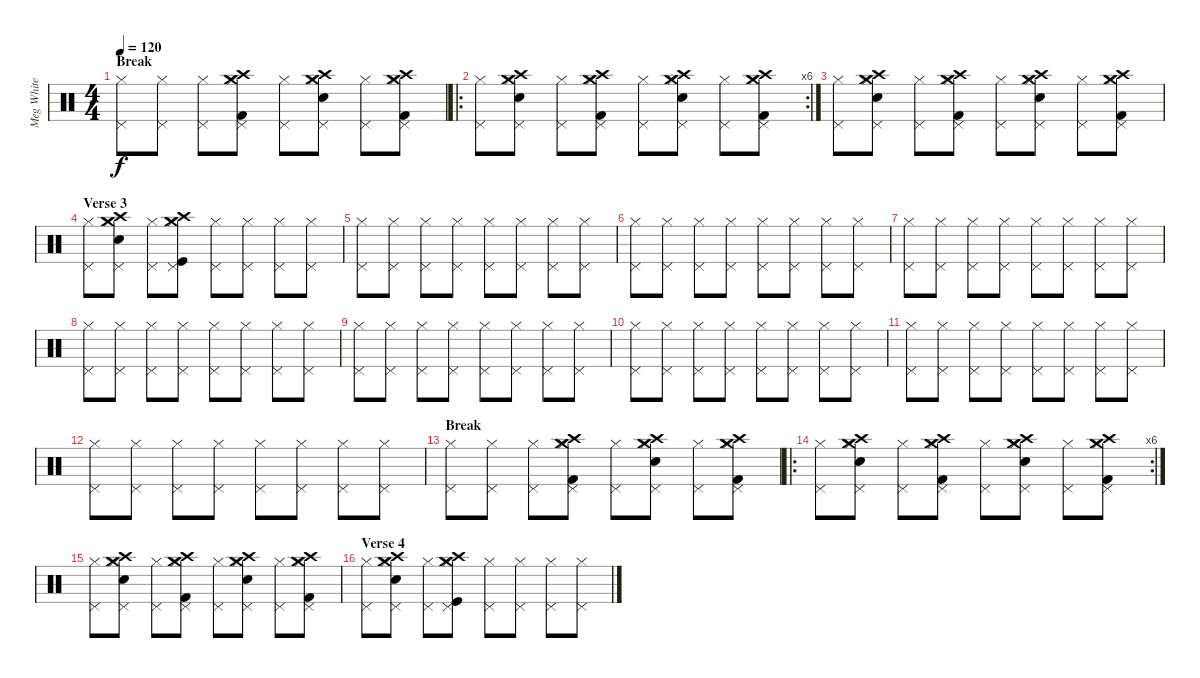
\track ("Meg White" "Meg White") {instrument percussion}
\staff {score}
\articulation defaults
\ts (4 4)
\section ("" "Break")
\tempo 120
\clef neutral
\ks c
("Hi-Hat (closed)" "Pedal Hi-Hat (hit)").8{dy f} ("Hi-Hat (closed)" "Pedal Hi-Hat (hit)").8 ("Hi-Hat (closed)" "Pedal Hi-Hat (hit)").8 ("Hi-Hat (closed)" "Pedal Hi-Hat (hit)" "Kick (hit) 2" "Crash high (hit)" "Crash medium (hit)").8 ("Hi-Hat (closed)" "Pedal Hi-Hat (hit)").8 ("Hi-Hat (closed)" "Pedal Hi-Hat (hit)" "Electric Snare (hit)" "Crash high (hit)" "Crash medium (hit)").8 ("Pedal Hi-Hat (hit)" "Hi-Hat (closed)").8 ("Pedal Hi-Hat (hit)" "Hi-Hat (closed)" "Kick (hit) 2" "Crash high (hit)" "Crash medium (hit)").8 |
\ro
\rc 6
("Hi-Hat (closed)" "Pedal Hi-Hat (hit)").8 ("Hi-Hat (closed)" "Pedal Hi-Hat (hit)" "Electric Snare (hit)" "Crash high (hit)" "Crash medium (hit)").8 ("Hi-Hat (closed)" "Pedal Hi-Hat (hit)").8 ("Hi-Hat (closed)" "Pedal Hi-Hat (hit)" "Kick (hit) 2" "Crash high (hit)" "Crash medium (hit)").8 ("Hi-Hat (closed)" "Pedal Hi-Hat (hit)").8 ("Hi-Hat (closed)" "Pedal Hi-Hat (hit)" "Electric Snare (hit)" "Crash high (hit)" "Crash medium (hit)").8 ("Pedal Hi-Hat (hit)" "Hi-Hat (closed)").8 ("Pedal Hi-Hat (hit)" "Hi-Hat (closed)" "Kick (hit) 2" "Crash high (hit)" "Crash medium (hit)").8 |
("Hi-Hat (closed)" "Pedal Hi-Hat (hit)").8 ("Hi-Hat (closed)" "Pedal Hi-Hat (hit)" "Electric Snare (hit)" "Crash high (hit)" "Crash medium (hit)").8 ("Hi-Hat (closed)" "Pedal Hi-Hat (hit)").8 ("Hi-Hat (closed)" "Pedal Hi-Hat (hit)" "Kick (hit) 2" "Crash high (hit)" "Crash medium (hit)").8 ("Hi-Hat (closed)" "Pedal Hi-Hat (hit)").8 ("Hi-Hat (closed)" "Pedal Hi-Hat (hit)" "Electric Snare (hit)" "Crash high (hit)" "Crash medium (hit)").8 ("Pedal Hi-Hat (hit)" "Hi-Hat (closed)").8 ("Pedal Hi-Hat (hit)" "Hi-Hat (closed)" "Kick (hit) 2" "Crash high (hit)" "Crash medium (hit)").8 |
\section ("" "Verse 3")
("Hi-Hat (closed)" "Pedal Hi-Hat (hit)").8 ("Hi-Hat (closed)" "Pedal Hi-Hat (hit)" "Electric Snare (hit)" "Crash high (hit)" "Crash medium (hit)").8 ("Hi-Hat (closed)" "Pedal Hi-Hat (hit)").8 ("Hi-Hat (closed)" "Pedal Hi-Hat (hit)" "Kick (hit)" "Crash high (hit)" "Crash medium (hit)").8 ("Hi-Hat (closed)" "Pedal Hi-Hat (hit)").8 ("Hi-Hat (closed)" "Pedal Hi-Hat (hit)").8 ("Pedal Hi-Hat (hit)" "Hi-Hat (closed)").8 ("Pedal Hi-Hat (hit)" "Hi-Hat (closed)").8 |
("Hi-Hat (closed)" "Pedal Hi-Hat (hit)").8 ("Hi-Hat (closed)" "Pedal Hi-Hat (hit)").8 ("Hi-Hat (closed)" "Pedal Hi-Hat (hit)").8 ("Hi-Hat (closed)" "Pedal Hi-Hat (hit)").8 ("Hi-Hat (closed)" "Pedal Hi-Hat (hit)").8 ("Hi-Hat (closed)" "Pedal Hi-Hat (hit)").8 ("Pedal Hi-Hat (hit)" "Hi-Hat (closed)").8 ("Pedal Hi-Hat (hit)" "Hi-Hat (closed)").8 |
("Hi-Hat (closed)" "Pedal Hi-Hat (hit)").8 ("Hi-Hat (closed)" "Pedal Hi-Hat (hit)").8 ("Hi-Hat (closed)" "Pedal Hi-Hat (hit)").8 ("Hi-Hat (closed)" "Pedal Hi-Hat (hit)").8 ("Hi-Hat (closed)" "Pedal Hi-Hat (hit)").8 ("Hi-Hat (closed)" "Pedal Hi-Hat (hit)").8 ("Pedal Hi-Hat (hit)" "Hi-Hat (closed)").8 ("Pedal Hi-Hat (hit)" "Hi-Hat (closed)").8 |
("Hi-Hat (closed)" "Pedal Hi-Hat (hit)").8 ("Hi-Hat (closed)" "Pedal Hi-Hat (hit)").8 ("Hi-Hat (closed)" "Pedal Hi-Hat (hit)").8 ("Hi-Hat (closed)" "Pedal Hi-Hat (hit)").8 ("Hi-Hat (closed)" "Pedal Hi-Hat (hit)").8 ("Hi-Hat (closed)" "Pedal Hi-Hat (hit)").8 ("Pedal Hi-Hat (hit)" "Hi-Hat (closed)").8 ("Pedal Hi-Hat (hit)" "Hi-Hat (closed)").8 |
("Hi-Hat (closed)" "Pedal Hi-Hat (hit)").8 ("Hi-Hat (closed)" "Pedal Hi-Hat (hit)").8 ("Hi-Hat (closed)" "Pedal Hi-Hat (hit)").8 ("Hi-Hat (closed)" "Pedal Hi-Hat (hit)").8 ("Hi-Hat (closed)" "Pedal Hi-Hat (hit)").8 ("Hi-Hat (closed)" "Pedal Hi-Hat (hit)").8 ("Pedal Hi-Hat (hit)" "Hi-Hat (closed)").8 ("Pedal Hi-Hat (hit)" "Hi-Hat (closed)").8 |
("Hi-Hat (closed)" "Pedal Hi-Hat (hit)").8 ("Hi-Hat (closed)" "Pedal Hi-Hat (hit)").8 ("Hi-Hat (closed)" "Pedal Hi-Hat (hit)").8 ("Hi-Hat (closed)" "Pedal Hi-Hat (hit)").8 ("Hi-Hat (closed)" "Pedal Hi-Hat (hit)").8 ("Hi-Hat (closed)" "Pedal Hi-Hat (hit)").8 ("Pedal Hi-Hat (hit)" "Hi-Hat (closed)").8 ("Pedal Hi-Hat (hit)" "Hi-Hat (closed)").8 |
("Hi-Hat (closed)" "Pedal Hi-Hat (hit)").8 ("Hi-Hat (closed)" "Pedal Hi-Hat (hit)").8 ("Hi-Hat (closed)" "Pedal Hi-Hat (hit)").8 ("Hi-Hat (closed)" "Pedal Hi-Hat (hit)").8 ("Hi-Hat (closed)" "Pedal Hi-Hat (hit)").8 ("Hi-Hat (closed)" "Pedal Hi-Hat (hit)").8 ("Pedal Hi-Hat (hit)" "Hi-Hat (closed)").8 ("Pedal Hi-Hat (hit)" "Hi-Hat (closed)").8 |
("Hi-Hat (closed)" "Pedal Hi-Hat (hit)").8 ("Hi-Hat (closed)" "Pedal Hi-Hat (hit)").8 ("Hi-Hat (closed)" "Pedal Hi-Hat (hit)").8 ("Hi-Hat (closed)" "Pedal Hi-Hat (hit)").8 ("Hi-Hat (closed)" "Pedal Hi-Hat (hit)").8 ("Hi-Hat (closed)" "Pedal Hi-Hat (hit)").8 ("Pedal Hi-Hat (hit)" "Hi-Hat (closed)").8 ("Pedal Hi-Hat (hit)" "Hi-Hat (closed)").8 |
("Hi-Hat (closed)" "Pedal Hi-Hat (hit)").8 ("Hi-Hat (closed)" "Pedal Hi-Hat (hit)").8 ("Hi-Hat (closed)" "Pedal Hi-Hat (hit)").8 ("Hi-Hat (closed)" "Pedal Hi-Hat (hit)").8 ("Hi-Hat (closed)" "Pedal Hi-Hat (hit)").8 ("Hi-Hat (closed)" "Pedal Hi-Hat (hit)").8 ("Pedal Hi-Hat (hit)" "Hi-Hat (closed)").8 ("Pedal Hi-Hat (hit)" "Hi-Hat (closed)").8 |
\section ("" "Break")
("Hi-Hat (closed)" "Pedal Hi-Hat (hit)").8 ("Hi-Hat (closed)" "Pedal Hi-Hat (hit)").8 ("Hi-Hat (closed)" "Pedal Hi-Hat (hit)").8 ("Hi-Hat (closed)" "Pedal Hi-Hat (hit)" "Kick (hit) 2" "Crash high (hit)" "Crash medium (hit)").8 ("Hi-Hat (closed)" "Pedal Hi-Hat (hit)").8 ("Hi-Hat (closed)" "Pedal Hi-Hat (hit)" "Electric Snare (hit)" "Crash high (hit)" "Crash medium (hit)").8 ("Pedal Hi-Hat (hit)" "Hi-Hat (closed)").8 ("Pedal Hi-Hat (hit)" "Hi-Hat (closed)" "Kick (hit) 2" "Crash high (hit)" "Crash medium (hit)").8 |
\ro
\rc 6
("Hi-Hat (closed)" "Pedal Hi-Hat (hit)").8 ("Hi-Hat (closed)" "Pedal Hi-Hat (hit)" "Electric Snare (hit)" "Crash high (hit)" "Crash medium (hit)").8 ("Hi-Hat (closed)" "Pedal Hi-Hat (hit)").8 ("Hi-Hat (closed)" "Pedal Hi-Hat (hit)" "Kick (hit) 2" "Crash high (hit)" "Crash medium (hit)").8 ("Hi-Hat (closed)" "Pedal Hi-Hat (hit)").8 ("Hi-Hat (closed)" "Pedal Hi-Hat (hit)" "Electric Snare (hit)" "Crash high (hit)" "Crash medium (hit)").8 ("Pedal Hi-Hat (hit)" "Hi-Hat (closed)").8 ("Pedal Hi-Hat (hit)" "Hi-Hat (closed)" "Kick (hit) 2" "Crash high (hit)" "Crash medium (hit)").8 |
("Hi-Hat (closed)" "Pedal Hi-Hat (hit)").8 ("Hi-Hat (closed)" "Pedal Hi-Hat (hit)" "Electric Snare (hit)" "Crash high (hit)" "Crash medium (hit)").8 ("Hi-Hat (closed)" "Pedal Hi-Hat (hit)").8 ("Hi-Hat (closed)" "Pedal Hi-Hat (hit)" "Kick (hit) 2" "Crash high (hit)" "Crash medium (hit)").8 ("Hi-Hat (closed)" "Pedal Hi-Hat (hit)").8 ("Hi-Hat (closed)" "Pedal Hi-Hat (hit)" "Electric Snare (hit)" "Crash high (hit)" "Crash medium (hit)").8 ("Pedal Hi-Hat (hit)" "Hi-Hat (closed)").8 ("Pedal Hi-Hat (hit)" "Hi-Hat (closed)" "Kick (hit) 2" "Crash high (hit)" "Crash medium (hit)").8 |
\section ("" "Verse 4")
("Hi-Hat (closed)" "Pedal Hi-Hat (hit)").8 ("Hi-Hat (closed)" "Pedal Hi-Hat (hit)" "Electric Snare (hit)" "Crash high (hit)" "Crash medium (hit)").8 ("Hi-Hat (closed)" "Pedal Hi-Hat (hit)").8 ("Hi-Hat (closed)" "Pedal Hi-Hat (hit)" "Kick (hit)" "Crash high (hit)" "Crash medium (hit)").8 ("Hi-Hat (closed)" "Pedal Hi-Hat (hit)").8 ("Hi-Hat (closed)" "Pedal Hi-Hat (hit)").8 ("Pedal Hi-Hat (hit)" "Hi-Hat (closed)").8 ("Pedal Hi-Hat (hit)" "Hi-Hat (closed)").8
